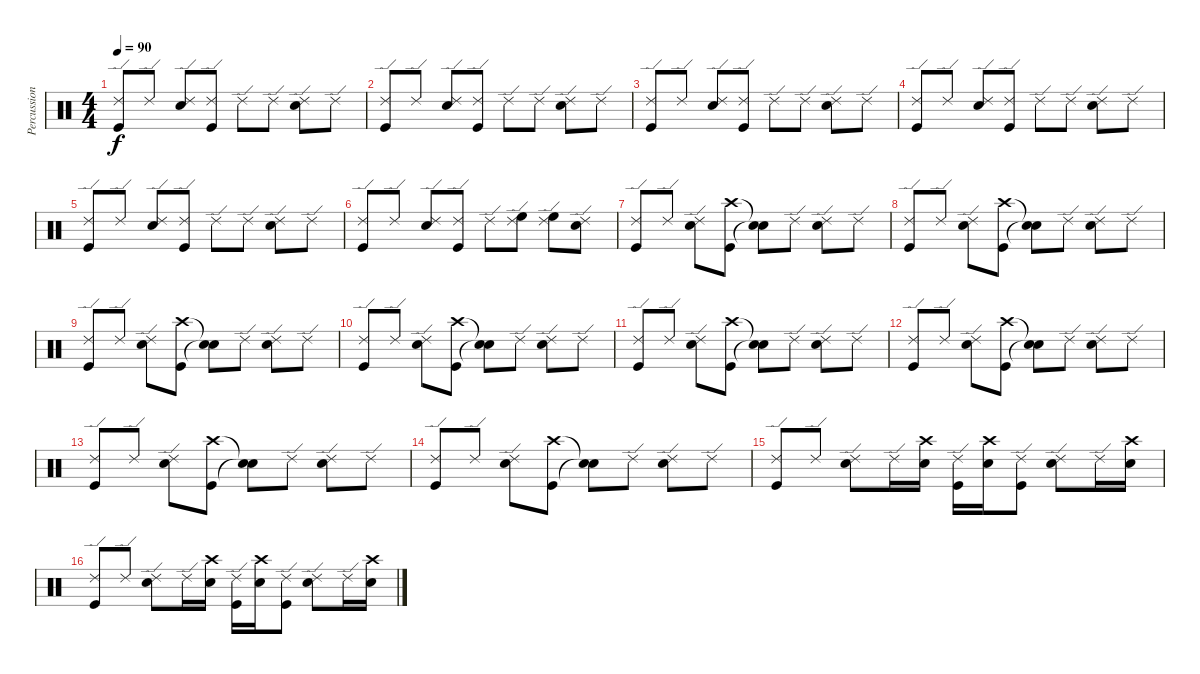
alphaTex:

\track ("Percussion" "Percussion") {instrument percussion}
\staff {score}
\articulation defaults
\ts (4 4)
\tempo 90
\clef neutral
\ks c
("Ride (edge) 2" "Kick (hit)").8{dy f} "Ride (edge) 2".8 ("Ride (edge) 2" "Snare (hit) 2").8 ("Ride (edge) 2" "Kick (hit)").8 "Ride (edge) 2".8 "Ride (edge) 2".8 ("Ride (edge) 2" "Snare (hit) 2").8 "Ride (edge) 2".8 |
("Ride (edge) 2" "Kick (hit)").8 "Ride (edge) 2".8 ("Ride (edge) 2" "Snare (hit) 2").8 ("Ride (edge) 2" "Kick (hit)").8 "Ride (edge) 2".8 "Ride (edge) 2".8 ("Ride (edge) 2" "Snare (hit) 2").8 "Ride (edge) 2".8 |
("Ride (edge) 2" "Kick (hit)").8 "Ride (edge) 2".8 ("Ride (edge) 2" "Snare (hit) 2").8 ("Ride (edge) 2" "Kick (hit)").8 "Ride (edge) 2".8 "Ride (edge) 2".8 ("Ride (edge) 2" "Snare (hit) 2").8 "Ride (edge) 2".8 |
("Ride (edge) 2" "Kick (hit)").8 "Ride (edge) 2".8 ("Ride (edge) 2" "Snare (hit) 2").8 ("Ride (edge) 2" "Kick (hit)").8 "Ride (edge) 2".8 "Ride (edge) 2".8 ("Ride (edge) 2" "Snare (hit) 2").8 "Ride (edge) 2".8 |
("Ride (edge) 2" "Kick (hit)").8 "Ride (edge) 2".8 ("Ride (edge) 2" "Snare (hit) 2").8 ("Ride (edge) 2" "Kick (hit)").8 "Ride (edge) 2".8 "Ride (edge) 2".8 ("Ride (edge) 2" "Snare (hit) 2").8 "Ride (edge) 2".8 |
("Ride (edge) 2" "Kick (hit)").8 "Ride (edge) 2".8 ("Ride (edge) 2" "Snare (hit) 2").8 ("Ride (edge) 2" "Kick (hit)").8 "Ride (edge) 2".8 ("Ride (edge) 2" "High Floor Tom (hit)").8 ("Ride (edge) 2" "High Floor Tom (hit)").8 ("Ride (edge) 2" "Snare (hit) 2").8 |
("Ride (edge) 2" "Kick (hit)").8 "Ride (edge) 2".8 ("Ride (edge) 2" "Snare (hit) 2").8 ("Crash high (hit)" "Kick (hit)").8 ("Snare (hit)"{t} "Snare (hit)"{t}).8 "Ride (edge) 2".8 ("Ride (edge) 2" "Snare (hit) 2").8 "Ride (edge) 2".8 |
("Ride (edge) 2" "Kick (hit)").8 "Ride (edge) 2".8 ("Ride (edge) 2" "Snare (hit) 2").8 ("Crash high (hit)" "Kick (hit)").8 ("Snare (hit)"{t} "Snare (hit)"{t}).8 "Ride (edge) 2".8 ("Ride (edge) 2" "Snare (hit) 2").8 "Ride (edge) 2".8 |
("Ride (edge) 2" "Kick (hit)").8 "Ride (edge) 2".8 ("Ride (edge) 2" "Snare (hit) 2").8 ("Crash high (hit)" "Kick (hit)").8 ("Snare (hit)"{t} "Snare (hit)"{t}).8 "Ride (edge) 2".8 ("Ride (edge) 2" "Snare (hit) 2").8 "Ride (edge) 2".8 |
("Ride (edge) 2" "Kick (hit)").8 "Ride (edge) 2".8 ("Ride (edge) 2" "Snare (hit) 2").8 ("Crash high (hit)" "Kick (hit)").8 ("Snare (hit)"{t} "Snare (hit)"{t}).8 "Ride (edge) 2".8 ("Ride (edge) 2" "Snare (hit) 2").8 "Ride (edge) 2".8 |
("Ride (edge) 2" "Kick (hit)").8 "Ride (edge) 2".8 ("Ride (edge) 2" "Snare (hit) 2").8 ("Crash high (hit)" "Kick (hit)").8 ("Snare (hit)"{t} "Snare (hit)"{t}).8 "Ride (edge) 2".8 ("Ride (edge) 2" "Snare (hit) 2").8 "Ride (edge) 2".8 |
("Ride (edge) 2" "Kick (hit)").8 "Ride (edge) 2".8 ("Ride (edge) 2" "Snare (hit) 2").8 ("Crash high (hit)" "Kick (hit)").8 ("Snare (hit)"{t} "Snare (hit)"{t}).8 "Ride (edge) 2".8 ("Ride (edge) 2" "Snare (hit) 2").8 "Ride (edge) 2".8 |
("Ride (edge) 2" "Kick (hit)").8 "Ride (edge) 2".8 ("Ride (edge) 2" "Snare (hit) 2").8 ("Crash high (hit)" "Kick (hit)").8 ("Snare (hit)"{t} "Snare (hit)"{t}).8 "Ride (edge) 2".8 ("Ride (edge) 2" "Snare (hit) 2").8 "Ride (edge) 2".8 |
("Ride (edge) 2" "Kick (hit)").8 "Ride (edge) 2".8 ("Ride (edge) 2" "Snare (hit) 2").8 ("Crash high (hit)" "Kick (hit)").8 ("Snare (hit)"{t} "Snare (hit)"{t}).8 "Ride (edge) 2".8 ("Ride (edge) 2" "Snare (hit) 2").8 "Ride (edge) 2".8 |
("Ride (edge) 2" "Kick (hit)").8 "Ride (edge) 2".8 ("Ride (edge) 2" "Snare (hit) 2").8 "Ride (edge) 2".16 ("Crash high (hit)" "Snare (hit) 2").16 ("Ride (edge) 2" "Kick (hit)").16 ("Crash high (hit)" "Snare (hit) 2").16 ("Ride (edge) 2" "Kick (hit)").8 ("Ride (edge) 2" "Snare (hit) 2").8 "Ride (edge) 2".16 ("Crash high (hit)" "Snare (hit) 2").16 |
("Ride (edge) 2" "Kick (hit)").8 "Ride (edge) 2".8 ("Ride (edge) 2" "Snare (hit) 2").8 "Ride (edge) 2".16 ("Crash high (hit)" "Snare (hit) 2").16 ("Ride (edge) 2" "Kick (hit)").16 ("Crash high (hit)" "Snare (hit) 2").16 ("Ride (edge) 2" "Kick (hit)").8 ("Ride (edge) 2" "Snare (hit) 2").8 "Ride (edge) 2".16 ("Crash high (hit)" "Snare (hit) 2").16
